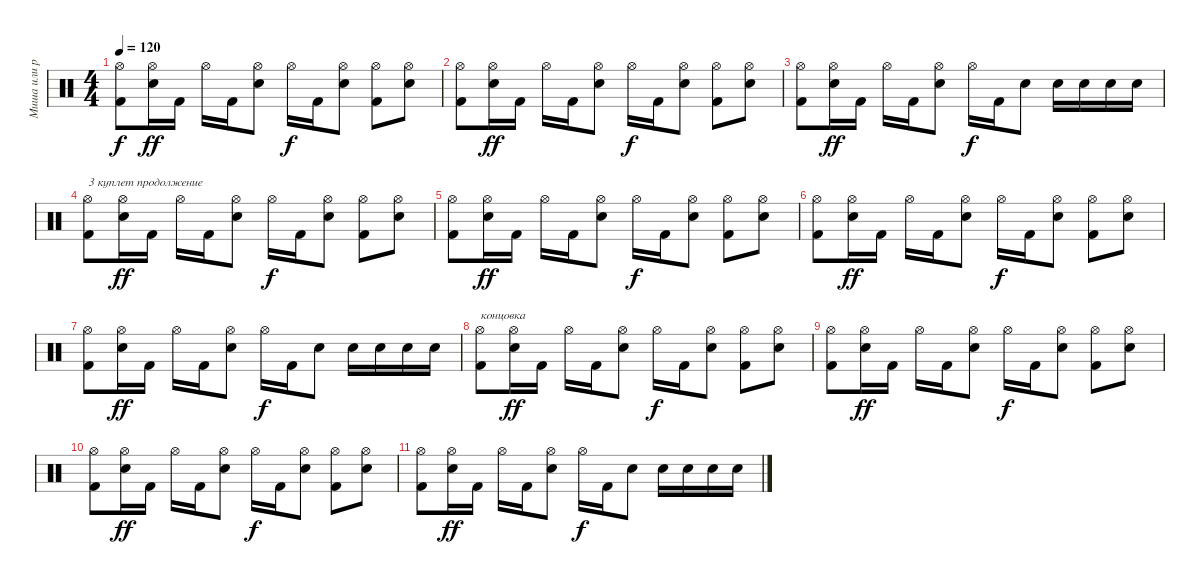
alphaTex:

\track ("Миша или рома" "Миша или р") {instrument percussion}
\staff {score}
\articulation defaults
\ts (4 4)
\tempo 120
\clef neutral
\ks c
("Hi-Hat (open)" "Kick (hit) 2").8{dy f} ("Hi-Hat (open)" "Snare (hit) 2").16{dy ff} "Kick (hit) 2".16 "Hi-Hat (open)".16 "Kick (hit) 2".16 ("Hi-Hat (open)" "Snare (hit) 2").8 "Hi-Hat (open)".16{dy f} "Kick (hit) 2".16 ("Hi-Hat (open)" "Snare (hit) 2").8 ("Kick (hit) 2" "Hi-Hat (open)").8 ("Hi-Hat (open)" "Snare (hit) 2").8 |
("Hi-Hat (open)" "Kick (hit) 2").8 ("Hi-Hat (open)" "Snare (hit) 2").16{dy ff} "Kick (hit) 2".16 "Hi-Hat (open)".16 "Kick (hit) 2".16 ("Hi-Hat (open)" "Snare (hit) 2").8 "Hi-Hat (open)".16{dy f} "Kick (hit) 2".16 ("Hi-Hat (open)" "Snare (hit) 2").8 ("Kick (hit) 2" "Hi-Hat (open)").8 ("Snare (hit) 2" "Hi-Hat (open)").8 |
("Hi-Hat (open)" "Kick (hit) 2").8 ("Hi-Hat (open)" "Snare (hit) 2").16{dy ff} "Kick (hit) 2".16 "Hi-Hat (open)".16 "Kick (hit) 2".16 ("Hi-Hat (open)" "Snare (hit) 2").8 "Hi-Hat (open)".16{dy f} "Kick (hit) 2".16 "Snare (hit) 2".8 "Snare (hit) 2".16 "Snare (hit) 2".16 "Snare (hit) 2".16 "Snare (hit) 2".16 |
("Hi-Hat (open)" "Kick (hit) 2").8{txt "3 куплет продолжение"} ("Hi-Hat (open)" "Snare (hit) 2").16{dy ff} "Kick (hit) 2".16 "Hi-Hat (open)".16 "Kick (hit) 2".16 ("Hi-Hat (open)" "Snare (hit) 2").8 "Hi-Hat (open)".16{dy f} "Kick (hit) 2".16 ("Hi-Hat (open)" "Snare (hit) 2").8 ("Kick (hit) 2" "Hi-Hat (open)").8 ("Snare (hit) 2" "Hi-Hat (open)").8 |
("Hi-Hat (open)" "Kick (hit) 2").8 ("Hi-Hat (open)" "Snare (hit) 2").16{dy ff} "Kick (hit) 2".16 "Hi-Hat (open)".16 "Kick (hit) 2".16 ("Hi-Hat (open)" "Snare (hit) 2").8 "Hi-Hat (open)".16{dy f} "Kick (hit) 2".16 ("Hi-Hat (open)" "Snare (hit) 2").8 ("Kick (hit) 2" "Hi-Hat (open)").8 ("Hi-Hat (open)" "Snare (hit) 2").8 |
("Hi-Hat (open)" "Kick (hit) 2").8 ("Hi-Hat (open)" "Snare (hit) 2").16{dy ff} "Kick (hit) 2".16 "Hi-Hat (open)".16 "Kick (hit) 2".16 ("Hi-Hat (open)" "Snare (hit) 2").8 "Hi-Hat (open)".16{dy f} "Kick (hit) 2".16 ("Hi-Hat (open)" "Snare (hit) 2").8 ("Kick (hit) 2" "Hi-Hat (open)").8 ("Snare (hit) 2" "Hi-Hat (open)").8 |
("Hi-Hat (open)" "Kick (hit) 2").8 ("Hi-Hat (open)" "Snare (hit) 2").16{dy ff} "Kick (hit) 2".16 "Hi-Hat (open)".16 "Kick (hit) 2".16 ("Hi-Hat (open)" "Snare (hit) 2").8 "Hi-Hat (open)".16{dy f} "Kick (hit) 2".16 "Snare (hit) 2".8 "Snare (hit) 2".16 "Snare (hit) 2".16 "Snare (hit) 2".16 "Snare (hit) 2".16 |
("Hi-Hat (open)" "Kick (hit) 2").8{txt "концовка"} ("Hi-Hat (open)" "Snare (hit) 2").16{dy ff} "Kick (hit) 2".16 "Hi-Hat (open)".16 "Kick (hit) 2".16 ("Hi-Hat (open)" "Snare (hit) 2").8 "Hi-Hat (open)".16{dy f} "Kick (hit) 2".16 ("Hi-Hat (open)" "Snare (hit) 2").8 ("Kick (hit) 2" "Hi-Hat (open)").8 ("Snare (hit) 2" "Hi-Hat (open)").8 |
("Hi-Hat (open)" "Kick (hit) 2").8 ("Hi-Hat (open)" "Snare (hit) 2").16{dy ff} "Kick (hit) 2".16 "Hi-Hat (open)".16 "Kick (hit) 2".16 ("Hi-Hat (open)" "Snare (hit) 2").8 "Hi-Hat (open)".16{dy f} "Kick (hit) 2".16 ("Hi-Hat (open)" "Snare (hit) 2").8 ("Kick (hit) 2" "Hi-Hat (open)").8 ("Hi-Hat (open)" "Snare (hit) 2").8 |
("Hi-Hat (open)" "Kick (hit) 2").8 ("Hi-Hat (open)" "Snare (hit) 2").16{dy ff} "Kick (hit) 2".16 "Hi-Hat (open)".16 "Kick (hit) 2".16 ("Hi-Hat (open)" "Snare (hit) 2").8 "Hi-Hat (open)".16{dy f} "Kick (hit) 2".16 ("Hi-Hat (open)" "Snare (hit) 2").8 ("Kick (hit) 2" "Hi-Hat (open)").8 ("Snare (hit) 2" "Hi-Hat (open)").8 |
("Hi-Hat (open)" "Kick (hit) 2").8 ("Hi-Hat (open)" "Snare (hit) 2").16{dy ff} "Kick (hit) 2".16 "Hi-Hat (open)".16 "Kick (hit) 2".16 ("Hi-Hat (open)" "Snare (hit) 2").8 "Hi-Hat (open)".16{dy f} "Kick (hit) 2".16 "Snare (hit) 2".8 "Snare (hit) 2".16 "Snare (hit) 2".16 "Snare (hit) 2".16 "Snare (hit) 2".16
